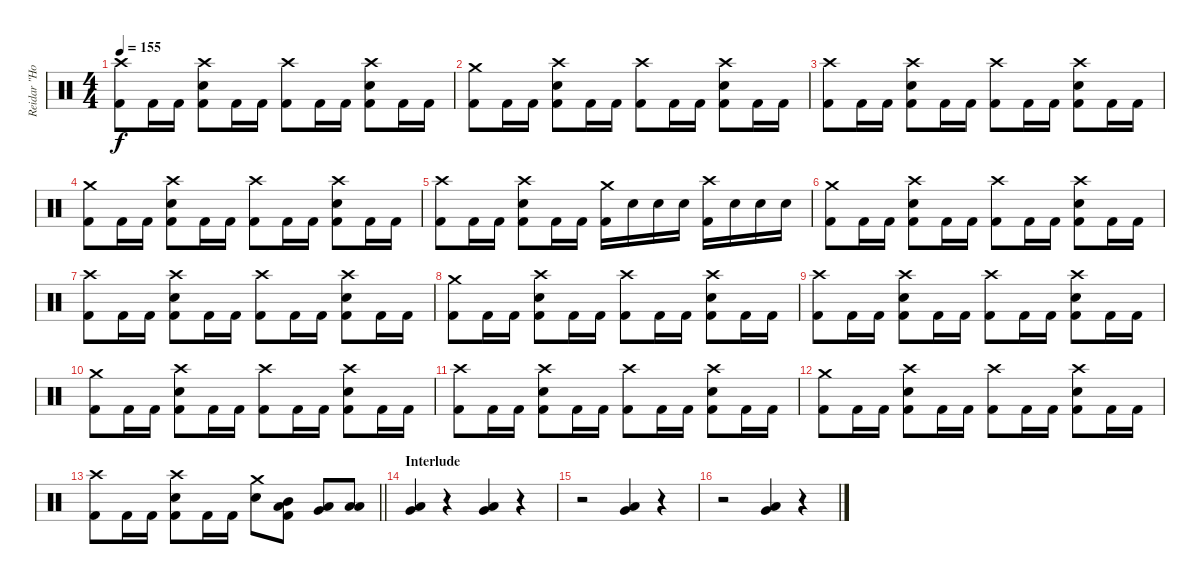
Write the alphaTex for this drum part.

\track ("Reidar \"Horgh\" Horghagen " "Reidar \"Ho") {instrument percussion}
\staff {score}
\articulation defaults
\ts (4 4)
\tempo 155
\clef neutral
\ks c
("Crash high (hit)" "Kick (hit) 2").8{dy f} "Kick (hit) 2".16 "Kick (hit) 2".16 ("Crash high (hit)" "Snare (hit) 2" "Kick (hit) 2").8 "Kick (hit) 2".16 "Kick (hit) 2".16 ("Crash high (hit)" "Kick (hit) 2").8 "Kick (hit) 2".16 "Kick (hit) 2".16 ("Crash high (hit)" "Snare (hit) 2" "Kick (hit) 2").8 "Kick (hit) 2".16 "Kick (hit) 2".16 |
("Crash medium (hit)" "Kick (hit) 2").8 "Kick (hit) 2".16 "Kick (hit) 2".16 ("Crash high (hit)" "Snare (hit) 2" "Kick (hit) 2").8 "Kick (hit) 2".16 "Kick (hit) 2".16 ("Crash high (hit)" "Kick (hit) 2").8 "Kick (hit) 2".16 "Kick (hit) 2".16 ("Crash high (hit)" "Snare (hit) 2" "Kick (hit) 2").8 "Kick (hit) 2".16 "Kick (hit) 2".16 |
("Crash high (hit)" "Kick (hit) 2").8 "Kick (hit) 2".16 "Kick (hit) 2".16 ("Crash high (hit)" "Snare (hit) 2" "Kick (hit) 2").8 "Kick (hit) 2".16 "Kick (hit) 2".16 ("Crash high (hit)" "Kick (hit) 2").8 "Kick (hit) 2".16 "Kick (hit) 2".16 ("Crash high (hit)" "Snare (hit) 2" "Kick (hit) 2").8 "Kick (hit) 2".16 "Kick (hit) 2".16 |
("Crash medium (hit)" "Kick (hit) 2").8 "Kick (hit) 2".16 "Kick (hit) 2".16 ("Crash high (hit)" "Snare (hit) 2" "Kick (hit) 2").8 "Kick (hit) 2".16 "Kick (hit) 2".16 ("Crash high (hit)" "Kick (hit) 2").8 "Kick (hit) 2".16 "Kick (hit) 2".16 ("Crash high (hit)" "Snare (hit) 2" "Kick (hit) 2").8 "Kick (hit) 2".16 "Kick (hit) 2".16 |
("Crash high (hit)" "Kick (hit) 2").8 "Kick (hit) 2".16 "Kick (hit) 2".16 ("Crash high (hit)" "Snare (hit) 2" "Kick (hit) 2").8 "Kick (hit) 2".16 "Kick (hit) 2".16 ("Crash medium (hit)" "Kick (hit) 2").16 "Snare (hit) 2".16 "Snare (hit) 2".16 "Snare (hit) 2".16 ("Crash high (hit)" "Kick (hit) 2").16 "Snare (hit) 2".16 "Snare (hit) 2".16 "Snare (hit) 2".16 |
("Crash medium (hit)" "Kick (hit) 2").8 "Kick (hit) 2".16 "Kick (hit) 2".16 ("Crash high (hit)" "Snare (hit) 2" "Kick (hit) 2").8 "Kick (hit) 2".16 "Kick (hit) 2".16 ("Crash high (hit)" "Kick (hit) 2").8 "Kick (hit) 2".16 "Kick (hit) 2".16 ("Crash high (hit)" "Snare (hit) 2" "Kick (hit) 2").8 "Kick (hit) 2".16 "Kick (hit) 2".16 |
("Crash high (hit)" "Kick (hit) 2").8 "Kick (hit) 2".16 "Kick (hit) 2".16 ("Crash high (hit)" "Snare (hit) 2" "Kick (hit) 2").8 "Kick (hit) 2".16 "Kick (hit) 2".16 ("Crash high (hit)" "Kick (hit) 2").8 "Kick (hit) 2".16 "Kick (hit) 2".16 ("Crash high (hit)" "Snare (hit) 2" "Kick (hit) 2").8 "Kick (hit) 2".16 "Kick (hit) 2".16 |
("Crash medium (hit)" "Kick (hit) 2").8 "Kick (hit) 2".16 "Kick (hit) 2".16 ("Crash high (hit)" "Snare (hit) 2" "Kick (hit) 2").8 "Kick (hit) 2".16 "Kick (hit) 2".16 ("Crash high (hit)" "Kick (hit) 2").8 "Kick (hit) 2".16 "Kick (hit) 2".16 ("Crash high (hit)" "Snare (hit) 2" "Kick (hit) 2").8 "Kick (hit) 2".16 "Kick (hit) 2".16 |
("Crash high (hit)" "Kick (hit) 2").8 "Kick (hit) 2".16 "Kick (hit) 2".16 ("Crash high (hit)" "Snare (hit) 2" "Kick (hit) 2").8 "Kick (hit) 2".16 "Kick (hit) 2".16 ("Crash high (hit)" "Kick (hit) 2").8 "Kick (hit) 2".16 "Kick (hit) 2".16 ("Crash high (hit)" "Snare (hit) 2" "Kick (hit) 2").8 "Kick (hit) 2".16 "Kick (hit) 2".16 |
("Crash medium (hit)" "Kick (hit) 2").8 "Kick (hit) 2".16 "Kick (hit) 2".16 ("Crash high (hit)" "Snare (hit) 2" "Kick (hit) 2").8 "Kick (hit) 2".16 "Kick (hit) 2".16 ("Crash high (hit)" "Kick (hit) 2").8 "Kick (hit) 2".16 "Kick (hit) 2".16 ("Crash high (hit)" "Snare (hit) 2" "Kick (hit) 2").8 "Kick (hit) 2".16 "Kick (hit) 2".16 |
("Crash high (hit)" "Kick (hit) 2").8 "Kick (hit) 2".16 "Kick (hit) 2".16 ("Crash high (hit)" "Snare (hit) 2" "Kick (hit) 2").8 "Kick (hit) 2".16 "Kick (hit) 2".16 ("Crash high (hit)" "Kick (hit) 2").8 "Kick (hit) 2".16 "Kick (hit) 2".16 ("Crash high (hit)" "Snare (hit) 2" "Kick (hit) 2").8 "Kick (hit) 2".16 "Kick (hit) 2".16 |
("Crash medium (hit)" "Kick (hit) 2").8 "Kick (hit) 2".16 "Kick (hit) 2".16 ("Crash high (hit)" "Snare (hit) 2" "Kick (hit) 2").8 "Kick (hit) 2".16 "Kick (hit) 2".16 ("Crash high (hit)" "Kick (hit) 2").8 "Kick (hit) 2".16 "Kick (hit) 2".16 ("Crash high (hit)" "Snare (hit) 2" "Kick (hit) 2").8 "Kick (hit) 2".16 "Kick (hit) 2".16 |
\barLineRight lightlight
("Crash high (hit)" "Kick (hit) 2").8 "Kick (hit) 2".16 "Kick (hit) 2".16 ("Crash high (hit)" "Snare (hit) 2" "Kick (hit) 2").8 "Kick (hit) 2".16 "Kick (hit) 2".16 ("Crash medium (hit)" "Snare (hit) 2").8 ("Mid Tom (hit)" "Low Tom (hit)" "Kick (hit) 2").8 ("Low Tom (hit)" "Very Low Tom (hit)").8 ("Low Tom (hit)" "Low Floor Tom (hit)").8 |
\section ("" "Interlude")
("Very Low Tom (hit)" "Low Floor Tom (hit)").4 r.4 ("Very Low Tom (hit)" "Low Floor Tom (hit)").4 r.4 |
r.2 ("Very Low Tom (hit)" "Low Floor Tom (hit)").4 r.4 |
r.2 ("Very Low Tom (hit)" "Low Floor Tom (hit)").4 r.4
